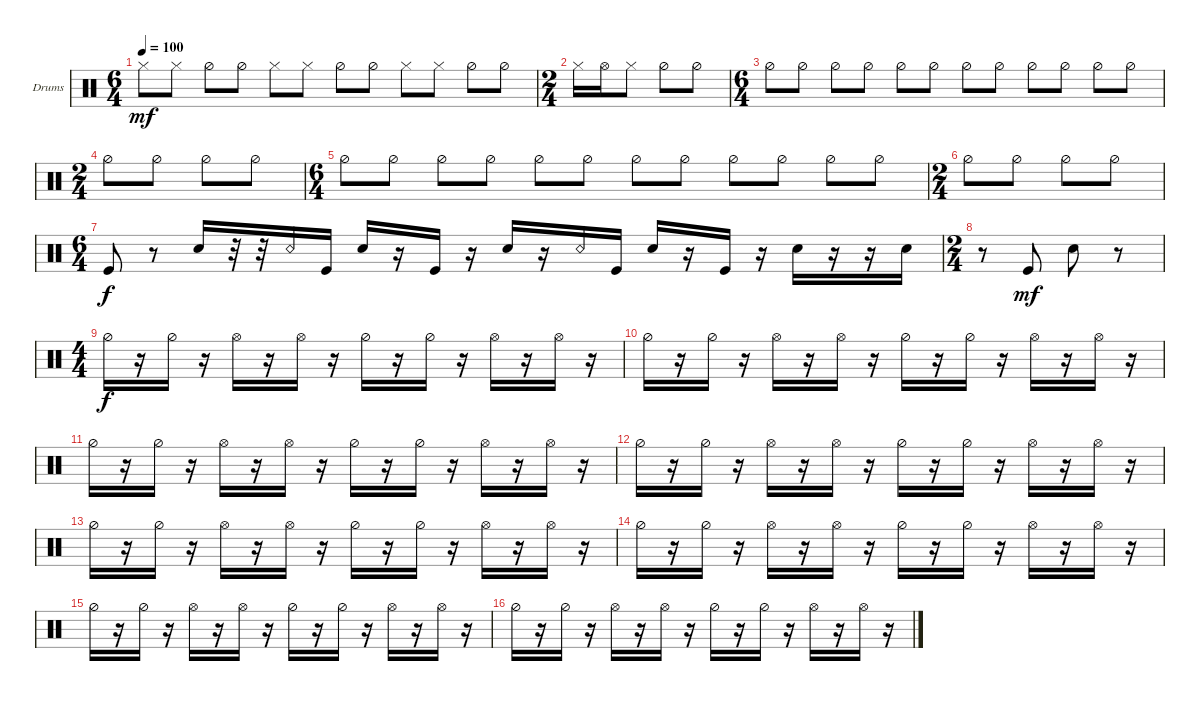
\bracketExtendMode groupsimilarinstruments
\firstSystemTrackNameOrientation horizontal
\otherSystemsTrackNameOrientation horizontal
\track ("Drumkit" "Drums") {instrument percussion}
\staff {score}
\articulation defaults
\ts (6 4)
\tempo 100
\clef neutral
\ks c "Hi-Hat (closed)".8{dy mf} "Hi-Hat (closed)".8 "Hi-Hat (half)".8 "Hi-Hat (half)".8 "Hi-Hat (closed)".8 "Hi-Hat (closed)".8 "Hi-Hat (half)".8 "Hi-Hat (half)".8 "Hi-Hat (closed)".8 "Hi-Hat (closed)".8 "Hi-Hat (half)".8 "Hi-Hat (half)".8
|
\ts (2 4)
"Hi-Hat (closed)".16 "Hi-Hat (open)".16 "Hi-Hat (closed)".8 "Hi-Hat (half)".8 "Hi-Hat (half)".8 |
\ts (6 4)
"Hi-Hat (half)".8 "Hi-Hat (half)".8 "Hi-Hat (half)".8 "Hi-Hat (half)".8 "Hi-Hat (half)".8 "Hi-Hat (half)".8 "Hi-Hat (half)".8 "Hi-Hat (half)".8 "Hi-Hat (half)".8 "Hi-Hat (half)".8 "Hi-Hat (half)".8 "Hi-Hat (half)".8 |
\ts (2 4)
"Hi-Hat (half)".8 "Hi-Hat (half)".8 "Hi-Hat (half)".8 "Hi-Hat (half)".8 |
\ts (6 4)
"Hi-Hat (half)".8 "Hi-Hat (half)".8 "Hi-Hat (half)".8 "Hi-Hat (half)".8 "Hi-Hat (half)".8 "Hi-Hat (half)".8 "Hi-Hat (half)".8 "Hi-Hat (half)".8 "Hi-Hat (half)".8 "Hi-Hat (half)".8 "Hi-Hat (half)".8 "Hi-Hat (half)".8 |
\ts (2 4)
"Hi-Hat (half)".8 "Hi-Hat (half)".8 "Hi-Hat (half)".8 "Hi-Hat (half)".8 |
\ts (6 4)
"Kick (hit)".8{dy f} r.8 "Snare (hit) 2".16 r.32 r.32 "Snare (rim shot)".16 "Kick (hit)".16 "Snare (hit) 2".16 r.16 "Kick (hit)".16 r.16 "Snare (hit) 2".16 r.16 "Snare (rim shot)".16 "Kick (hit)".16 "Snare (hit) 2".16 r.16 "Kick (hit)".16 r.16 "Snare (hit) 2".16 r.16 r.16 "Snare (hit) 2".16 |
\ts (2 4)
r.8 "Kick (hit)".8{dy mf} "Snare (hit) 2".8 r.8 |
\ts (4 4)
"Hi-Hat (half)".16{dy f} r.16 "Hi-Hat (half)".16 r.16 "Hi-Hat (open)".16 r.16 "Hi-Hat (open)".16 r.16 "Hi-Hat (half)".16 r.16 "Hi-Hat (half)".16 r.16 "Hi-Hat (open)".16 r.16 "Hi-Hat (open)".16 r.16 |
"Hi-Hat (half)".16 r.16 "Hi-Hat (half)".16 r.16 "Hi-Hat (open)".16 r.16 "Hi-Hat (open)".16 r.16 "Hi-Hat (half)".16 r.16 "Hi-Hat (half)".16 r.16 "Hi-Hat (open)".16 r.16 "Hi-Hat (open)".16 r.16 |
"Hi-Hat (half)".16 r.16 "Hi-Hat (half)".16 r.16 "Hi-Hat (open)".16 r.16 "Hi-Hat (open)".16 r.16 "Hi-Hat (half)".16 r.16 "Hi-Hat (half)".16 r.16 "Hi-Hat (open)".16 r.16 "Hi-Hat (open)".16 r.16 |
"Hi-Hat (half)".16 r.16 "Hi-Hat (half)".16 r.16 "Hi-Hat (open)".16 r.16 "Hi-Hat (open)".16 r.16 "Hi-Hat (half)".16 r.16 "Hi-Hat (half)".16 r.16 "Hi-Hat (open)".16 r.16 "Hi-Hat (open)".16 r.16 |
"Hi-Hat (half)".16 r.16 "Hi-Hat (half)".16 r.16 "Hi-Hat (open)".16 r.16 "Hi-Hat (open)".16 r.16 "Hi-Hat (half)".16 r.16 "Hi-Hat (half)".16 r.16 "Hi-Hat (open)".16 r.16 "Hi-Hat (open)".16 r.16 |
"Hi-Hat (half)".16 r.16 "Hi-Hat (half)".16 r.16 "Hi-Hat (open)".16 r.16 "Hi-Hat (open)".16 r.16 "Hi-Hat (half)".16 r.16 "Hi-Hat (half)".16 r.16 "Hi-Hat (open)".16 r.16 "Hi-Hat (open)".16 r.16 |
"Hi-Hat (half)".16 r.16 "Hi-Hat (half)".16 r.16 "Hi-Hat (open)".16 r.16 "Hi-Hat (open)".16 r.16 "Hi-Hat (half)".16 r.16 "Hi-Hat (half)".16 r.16 "Hi-Hat (open)".16 r.16 "Hi-Hat (open)".16 r.16 |
"Hi-Hat (half)".16 r.16 "Hi-Hat (half)".16 r.16 "Hi-Hat (open)".16 r.16 "Hi-Hat (open)".16 r.16 "Hi-Hat (half)".16 r.16 "Hi-Hat (half)".16 r.16 "Hi-Hat (open)".16 r.16 "Hi-Hat (open)".16 r.16
